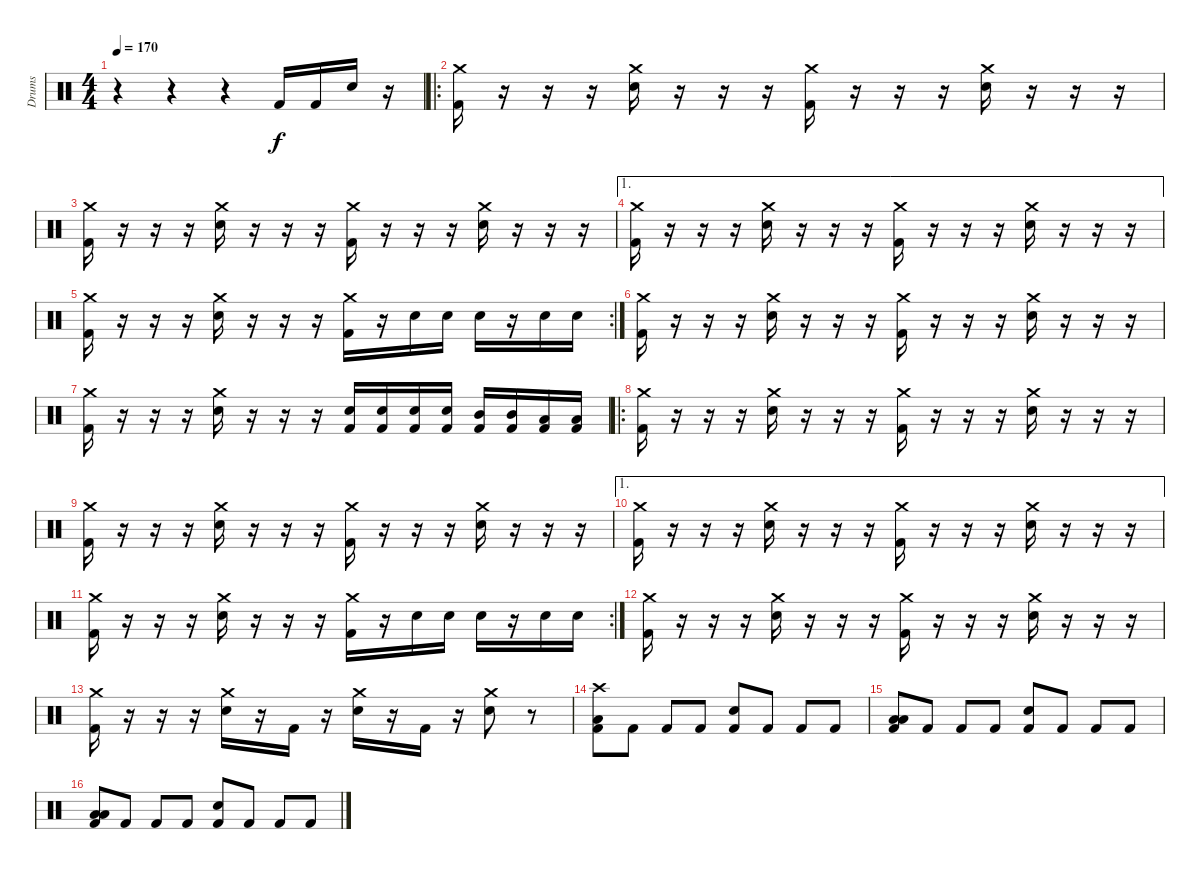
\track ("Drums" "Drums") {instrument percussion}
\staff {score}
\articulation defaults
\ts (4 4)
\tempo 170
\clef neutral
\ks c
r.4{dy f} r.4 r.4 "Kick (hit) 2".16 "Kick (hit) 2".16 "Electric Snare (hit)".16 r.16 |
\ro
("Crash medium (hit)" "Kick (hit) 2").16 r.16 r.16 r.16 ("Crash medium (hit)" "Electric Snare (hit)").16 r.16 r.16 r.16 ("Crash medium (hit)" "Kick (hit) 2").16 r.16 r.16 r.16 ("Crash medium (hit)" "Electric Snare (hit)").16 r.16 r.16 r.16 |
("Crash medium (hit)" "Kick (hit) 2").16 r.16 r.16 r.16 ("Crash medium (hit)" "Electric Snare (hit)").16 r.16 r.16 r.16 ("Crash medium (hit)" "Kick (hit) 2").16 r.16 r.16 r.16 ("Crash medium (hit)" "Electric Snare (hit)").16 r.16 r.16 r.16 |
\ae 1
("Crash medium (hit)" "Kick (hit) 2").16 r.16 r.16 r.16 ("Crash medium (hit)" "Electric Snare (hit)").16 r.16 r.16 r.16 ("Crash medium (hit)" "Kick (hit) 2").16 r.16 r.16 r.16 ("Crash medium (hit)" "Electric Snare (hit)").16 r.16 r.16 r.16 |
\rc 2
("Crash medium (hit)" "Kick (hit) 2").16 r.16 r.16 r.16 ("Crash medium (hit)" "Electric Snare (hit)").16 r.16 r.16 r.16 ("Crash medium (hit)" "Kick (hit) 2").16 r.16 "Electric Snare (hit)".16 "Electric Snare (hit)".16 "Electric Snare (hit)".16 r.16 "Electric Snare (hit)".16 "Electric Snare (hit)".16 |
("Crash medium (hit)" "Kick (hit) 2").16 r.16 r.16 r.16 ("Crash medium (hit)" "Electric Snare (hit)").16 r.16 r.16 r.16 ("Crash medium (hit)" "Kick (hit) 2").16 r.16 r.16 r.16 ("Crash medium (hit)" "Electric Snare (hit)").16 r.16 r.16 r.16 |
("Crash medium (hit)" "Kick (hit) 2").16 r.16 r.16 r.16 ("Crash medium (hit)" "Electric Snare (hit)").16 r.16 r.16 r.16 ("Electric Snare (hit)" "Kick (hit) 2").16 ("Electric Snare (hit)" "Kick (hit) 2").16 ("Electric Snare (hit)" "Kick (hit) 2").16 ("Electric Snare (hit)" "Kick (hit) 2").16 ("Mid Tom (hit)" "Kick (hit) 2").16 ("Mid Tom (hit)" "Kick (hit) 2").16 ("Low Tom (hit)" "Kick (hit) 2").16 ("Low Tom (hit)" "Kick (hit) 2").16 |
\ro
("Crash medium (hit)" "Kick (hit) 2").16 r.16 r.16 r.16 ("Crash medium (hit)" "Electric Snare (hit)").16 r.16 r.16 r.16 ("Crash medium (hit)" "Kick (hit) 2").16 r.16 r.16 r.16 ("Crash medium (hit)" "Electric Snare (hit)").16 r.16 r.16 r.16 |
("Crash medium (hit)" "Kick (hit) 2").16 r.16 r.16 r.16 ("Crash medium (hit)" "Electric Snare (hit)").16 r.16 r.16 r.16 ("Crash medium (hit)" "Kick (hit) 2").16 r.16 r.16 r.16 ("Crash medium (hit)" "Electric Snare (hit)").16 r.16 r.16 r.16 |
\ae 1
("Crash medium (hit)" "Kick (hit) 2").16 r.16 r.16 r.16 ("Crash medium (hit)" "Electric Snare (hit)").16 r.16 r.16 r.16 ("Crash medium (hit)" "Kick (hit) 2").16 r.16 r.16 r.16 ("Crash medium (hit)" "Electric Snare (hit)").16 r.16 r.16 r.16 |
\rc 2
("Crash medium (hit)" "Kick (hit) 2").16 r.16 r.16 r.16 ("Crash medium (hit)" "Electric Snare (hit)").16 r.16 r.16 r.16 ("Crash medium (hit)" "Kick (hit) 2").16 r.16 "Electric Snare (hit)".16 "Electric Snare (hit)".16 "Electric Snare (hit)".16 r.16 "Electric Snare (hit)".16 "Electric Snare (hit)".16 |
("Crash medium (hit)" "Kick (hit) 2").16 r.16 r.16 r.16 ("Crash medium (hit)" "Electric Snare (hit)").16 r.16 r.16 r.16 ("Crash medium (hit)" "Kick (hit) 2").16 r.16 r.16 r.16 ("Crash medium (hit)" "Electric Snare (hit)").16 r.16 r.16 r.16 |
("Crash medium (hit)" "Kick (hit) 2").16 r.16 r.16 r.16 ("Crash medium (hit)" "Electric Snare (hit)").16 r.16 "Kick (hit) 2".16 r.16 ("Crash medium (hit)" "Electric Snare (hit)").16 r.16 "Kick (hit) 2".16 r.16 ("Crash medium (hit)" "Electric Snare (hit)").8 r.8 |
("Crash high (hit)" "Low Tom (hit)" "Kick (hit) 2").8 "Kick (hit) 2".8 "Kick (hit) 2".8 "Kick (hit) 2".8 ("Electric Snare (hit)" "Kick (hit) 2").8 "Kick (hit) 2".8 "Kick (hit) 2".8 "Kick (hit) 2".8 |
("Low Tom (hit)" "Low Tom (hit)" "Kick (hit) 2").8 "Kick (hit) 2".8 "Kick (hit) 2".8 "Kick (hit) 2".8 ("Electric Snare (hit)" "Kick (hit) 2").8 "Kick (hit) 2".8 "Kick (hit) 2".8 "Kick (hit) 2".8 |
("Low Tom (hit)" "Low Tom (hit)" "Kick (hit) 2").8 "Kick (hit) 2".8 "Kick (hit) 2".8 "Kick (hit) 2".8 ("Electric Snare (hit)" "Kick (hit) 2").8 "Kick (hit) 2".8 "Kick (hit) 2".8 "Kick (hit) 2".8
